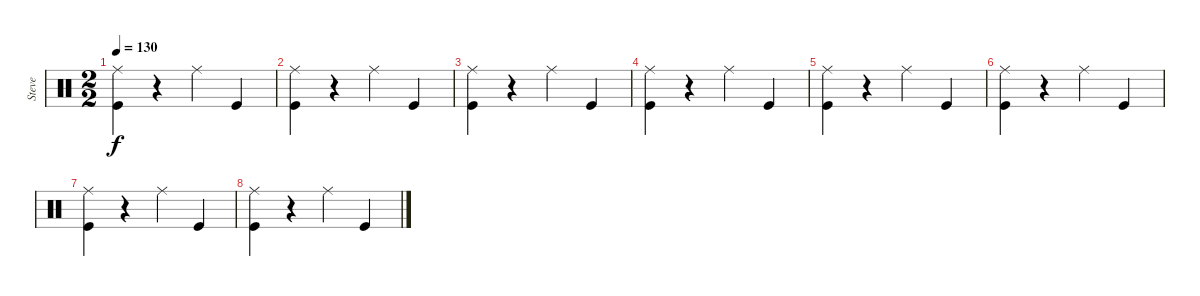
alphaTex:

\track ("Steve" "Steve") {instrument percussion}
\staff {score}
\articulation defaults
\ts (2 2)
\tempo 130
\clef neutral
\ks c
("Ride (middle)" "Kick (hit)").4{dy f} r.4 "Ride (middle)".4 "Kick (hit)".4 |
("Ride (middle)" "Kick (hit)").4 r.4 "Ride (middle)".4 "Kick (hit)".4 |
("Ride (middle)" "Kick (hit)").4 r.4 "Ride (middle)".4 "Kick (hit)".4 |
("Ride (middle)" "Kick (hit)").4 r.4 "Ride (middle)".4 "Kick (hit)".4 |
("Ride (middle)" "Kick (hit)").4 r.4 "Ride (middle)".4 "Kick (hit)".4 |
("Ride (middle)" "Kick (hit)").4 r.4 "Ride (middle)".4 "Kick (hit)".4 |
("Ride (middle)" "Kick (hit)").4 r.4 "Ride (middle)".4 "Kick (hit)".4 |
("Ride (middle)" "Kick (hit)").4 r.4 "Ride (middle)".4 "Kick (hit)".4
